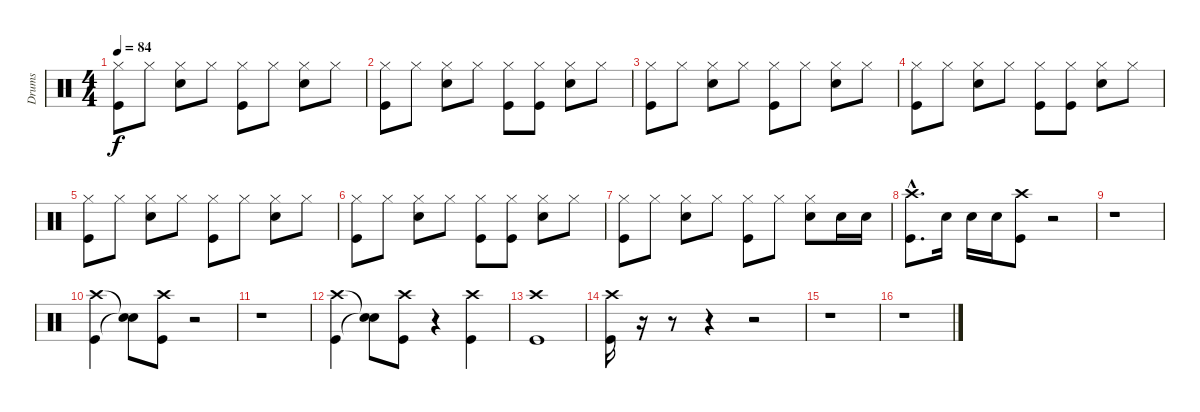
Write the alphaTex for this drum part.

\track ("Drums" "Drums") {instrument percussion}
\staff {score}
\articulation defaults
\ts (4 4)
\tempo 84
\clef neutral
\ks c
("Hi-Hat (closed)" "Kick (hit)").8{dy f} "Hi-Hat (closed)".8 ("Hi-Hat (closed)" "Snare (hit) 2").8 "Hi-Hat (closed)".8 ("Hi-Hat (closed)" "Kick (hit)").8 "Hi-Hat (closed)".8 ("Hi-Hat (closed)" "Snare (hit) 2").8 "Hi-Hat (closed)".8 |
("Hi-Hat (closed)" "Kick (hit)").8 "Hi-Hat (closed)".8 ("Hi-Hat (closed)" "Snare (hit) 2").8 "Hi-Hat (closed)".8 ("Hi-Hat (closed)" "Kick (hit)").8 ("Hi-Hat (closed)" "Kick (hit)").8 ("Hi-Hat (closed)" "Snare (hit) 2").8 "Hi-Hat (closed)".8 |
("Hi-Hat (closed)" "Kick (hit)").8 "Hi-Hat (closed)".8 ("Hi-Hat (closed)" "Snare (hit) 2").8 "Hi-Hat (closed)".8 ("Hi-Hat (closed)" "Kick (hit)").8 "Hi-Hat (closed)".8 ("Hi-Hat (closed)" "Snare (hit) 2").8 "Hi-Hat (closed)".8 |
("Hi-Hat (closed)" "Kick (hit)").8 "Hi-Hat (closed)".8 ("Hi-Hat (closed)" "Snare (hit) 2").8 "Hi-Hat (closed)".8 ("Hi-Hat (closed)" "Kick (hit)").8 ("Hi-Hat (closed)" "Kick (hit)").8 ("Hi-Hat (closed)" "Snare (hit) 2").8 "Hi-Hat (closed)".8 |
("Hi-Hat (closed)" "Kick (hit)").8 "Hi-Hat (closed)".8 ("Hi-Hat (closed)" "Snare (hit) 2").8 "Hi-Hat (closed)".8 ("Hi-Hat (closed)" "Kick (hit)").8 "Hi-Hat (closed)".8 ("Hi-Hat (closed)" "Snare (hit) 2").8 "Hi-Hat (closed)".8 |
("Hi-Hat (closed)" "Kick (hit)").8 "Hi-Hat (closed)".8 ("Hi-Hat (closed)" "Snare (hit) 2").8 "Hi-Hat (closed)".8 ("Hi-Hat (closed)" "Kick (hit)").8 ("Hi-Hat (closed)" "Kick (hit)").8 ("Hi-Hat (closed)" "Snare (hit) 2").8 "Hi-Hat (closed)".8 |
("Hi-Hat (closed)" "Kick (hit)").8 "Hi-Hat (closed)".8 ("Hi-Hat (closed)" "Snare (hit) 2").8 "Hi-Hat (closed)".8 ("Hi-Hat (closed)" "Kick (hit)").8 "Hi-Hat (closed)".8 ("Hi-Hat (closed)" "Snare (hit) 2").8 "Snare (hit) 2".16 "Snare (hit) 2".16 |
("Crash high (hit)"{hac} "Kick (hit)"{hac}).8{d} "Snare (hit) 2".16 "Snare (hit) 2".16 "Snare (hit) 2".16 ("Crash high (hit)" "Kick (hit)").8 r.2 |
r.1 |
("Crash high (hit)" "Kick (hit)").4 ("Snare (hit)"{t} "Snare (hit)"{t}).8 ("Crash high (hit)" "Kick (hit)").8 r.2 |
r.1 |
("Crash high (hit)" "Kick (hit)").4 ("Snare (hit)"{t} "Snare (hit)"{t}).8 ("Crash high (hit)" "Kick (hit)").8 r.4 ("Crash high (hit)" "Kick (hit)").4 |
("Crash high (hit)" "Kick (hit)").1 |
("Crash high (hit)" "Kick (hit)").16 r.16 r.8 r.4 r.2 |
r.1 |
r.1
